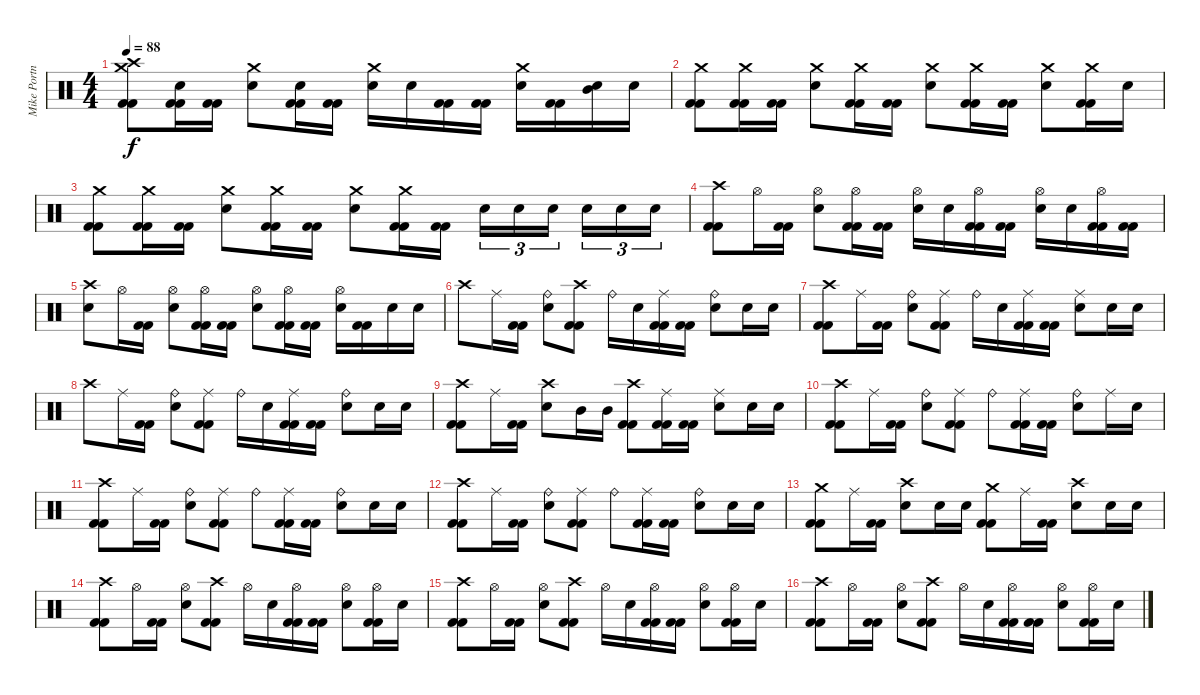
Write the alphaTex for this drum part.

\track ("Mike Portnoy" "Mike Portn") {instrument percussion}
\staff {score}
\articulation defaults
\ts (4 4)
\tempo 88
\clef neutral
\ks c
("Crash medium (hit)" "Crash high (hit)" "Kick (hit) 2" "Kick (hit) 2").8{dy f} ("Snare (hit) 2" "Kick (hit) 2" "Kick (hit) 2").16 ("Kick (hit) 2" "Kick (hit) 2").16 ("Crash medium (hit)" "Snare (hit) 2").8 ("Snare (hit) 2" "Kick (hit) 2" "Kick (hit) 2").16 ("Kick (hit) 2" "Kick (hit) 2").16 ("Crash medium (hit)" "Snare (hit) 2").16 "Snare (hit) 2".16 ("Kick (hit) 2" "Kick (hit) 2").16 ("Kick (hit) 2" "Kick (hit) 2").16 ("Crash medium (hit)" "Snare (hit) 2").16 ("Kick (hit) 2" "Kick (hit) 2").16 ("Snare (hit) 2" "Mid Tom (hit)").16 "Snare (hit) 2".16 |
("Crash medium (hit)" "Kick (hit) 2" "Kick (hit) 2").8 ("Crash medium (hit)" "Kick (hit) 2" "Kick (hit) 2").16 ("Kick (hit) 2" "Kick (hit) 2").16 ("Crash medium (hit)" "Snare (hit) 2").8 ("Crash medium (hit)" "Kick (hit) 2" "Kick (hit) 2").16 ("Kick (hit) 2" "Kick (hit) 2").16 ("Crash medium (hit)" "Snare (hit) 2").8 ("Crash medium (hit)" "Kick (hit) 2" "Kick (hit) 2").16 ("Kick (hit) 2" "Kick (hit) 2").16 ("Crash medium (hit)" "Snare (hit) 2").8 ("Crash medium (hit)" "Kick (hit) 2" "Kick (hit) 2").16 "Snare (hit) 2".16 |
("Crash medium (hit)" "Kick (hit) 2" "Kick (hit) 2").8 ("Crash medium (hit)" "Kick (hit) 2" "Kick (hit) 2").16 ("Kick (hit) 2" "Kick (hit) 2").16 ("Crash medium (hit)" "Snare (hit) 2").8 ("Crash medium (hit)" "Kick (hit) 2" "Kick (hit) 2").16 ("Kick (hit) 2" "Kick (hit) 2").16 ("Crash medium (hit)" "Snare (hit) 2").8 ("Crash medium (hit)" "Kick (hit) 2" "Kick (hit) 2").16 ("Kick (hit) 2" "Kick (hit) 2").16 "Snare (hit) 2".16{tu (3 2)} "Snare (hit) 2".16{tu (3 2)} "Snare (hit) 2".16{tu (3 2)} "Snare (hit) 2".16{tu (3 2)} "Snare (hit) 2".16{tu (3 2)} "Snare (hit) 2".16{tu (3 2)} |
("Crash high (hit)" "Kick (hit) 2" "Kick (hit) 2").8 "Hi-Hat (open)".16 ("Kick (hit) 2" "Kick (hit) 2").16 ("Hi-Hat (open)" "Snare (hit) 2").8 ("Hi-Hat (open)" "Kick (hit) 2" "Kick (hit) 2").16 ("Kick (hit) 2" "Kick (hit) 2").16 ("Hi-Hat (open)" "Snare (hit) 2").16 "Snare (hit) 2".16 ("Hi-Hat (open)" "Kick (hit) 2" "Kick (hit) 2").16 ("Kick (hit) 2" "Kick (hit) 2").16 ("Hi-Hat (open)" "Snare (hit) 2").16 "Snare (hit) 2".16 ("Hi-Hat (open)" "Kick (hit) 2" "Kick (hit) 2").16 ("Kick (hit) 2" "Kick (hit) 2").16 |
("Crash high (hit)" "Snare (hit) 2").8 "Hi-Hat (open)".16 ("Kick (hit) 2" "Kick (hit) 2").16 ("Hi-Hat (open)" "Snare (hit) 2").8 ("Hi-Hat (open)" "Kick (hit) 2" "Kick (hit) 2").16 ("Kick (hit) 2" "Kick (hit) 2").16 ("Hi-Hat (open)" "Snare (hit) 2").8 ("Hi-Hat (open)" "Kick (hit) 2" "Kick (hit) 2").16 ("Kick (hit) 2" "Kick (hit) 2").16 ("Hi-Hat (open)" "Snare (hit) 2").16 ("Kick (hit) 2" "Kick (hit) 2").16 "Snare (hit) 2".16 "Snare (hit) 2".16 |
"Crash high (hit)".8 "Ride (middle)".16 ("Kick (hit) 2" "Kick (hit) 2").16 ("Ride (bell)" "Snare (hit) 2").8 ("Crash high (hit)" "Kick (hit) 2" "Kick (hit) 2").8 "Ride (bell)".16 "Snare (hit) 2".16 ("Ride (middle)" "Kick (hit) 2" "Kick (hit) 2").16 ("Kick (hit) 2" "Kick (hit) 2").16 ("Ride (bell)" "Snare (hit) 2").8 "Snare (hit) 2".16 "Snare (hit) 2".16 |
("Crash high (hit)" "Kick (hit) 2" "Kick (hit) 2").8 "Ride (middle)".16 ("Kick (hit) 2" "Kick (hit) 2").16 ("Ride (bell)" "Snare (hit) 2").8 ("Ride (middle)" "Kick (hit) 2" "Kick (hit) 2").8 "Ride (bell)".16 "Snare (hit) 2".16 ("Ride (middle)" "Kick (hit) 2" "Kick (hit) 2").16 ("Kick (hit) 2" "Kick (hit) 2").16 ("Ride (middle)" "Snare (hit) 2").8 "Snare (hit) 2".16 "Snare (hit) 2".16 |
"Crash high (hit)".8 "Ride (middle)".16 ("Kick (hit) 2" "Kick (hit) 2").16 ("Ride (bell)" "Snare (hit) 2").8 ("Ride (middle)" "Kick (hit) 2" "Kick (hit) 2").8 "Ride (bell)".16 "Snare (hit) 2".16 ("Ride (middle)" "Kick (hit) 2" "Kick (hit) 2").16 ("Kick (hit) 2" "Kick (hit) 2").16 ("Ride (bell)" "Snare (hit) 2").8 "Snare (hit) 2".16 "Snare (hit) 2".16 |
("Crash high (hit)" "Kick (hit) 2" "Kick (hit) 2").8 "Ride (middle)".16 ("Kick (hit) 2" "Kick (hit) 2").16 ("Crash high (hit)" "Snare (hit) 2").8 "Mid Tom (hit)".16 "Mid Tom (hit)".16 ("Crash high (hit)" "Kick (hit) 2" "Kick (hit) 2").8 ("Ride (middle)" "Kick (hit) 2" "Kick (hit) 2").16 ("Kick (hit) 2" "Kick (hit) 2").16 ("Ride (middle)" "Snare (hit) 2").8 "Snare (hit) 2".16 "Snare (hit) 2".16 |
("Crash high (hit)" "Kick (hit) 2" "Kick (hit) 2").8 "Ride (middle)".16 ("Kick (hit) 2" "Kick (hit) 2").16 ("Ride (bell)" "Snare (hit) 2").8 ("Ride (middle)" "Kick (hit) 2" "Kick (hit) 2").8 "Ride (bell)".8 ("Ride (middle)" "Kick (hit) 2" "Kick (hit) 2").16 ("Kick (hit) 2" "Kick (hit) 2").16 ("Ride (bell)" "Snare (hit) 2").8 "Ride (middle)".16 "Snare (hit) 2".16 |
("Crash high (hit)" "Kick (hit) 2" "Kick (hit) 2").8 "Ride (middle)".16 ("Kick (hit) 2" "Kick (hit) 2").16 ("Ride (bell)" "Snare (hit) 2").8 ("Ride (middle)" "Kick (hit) 2" "Kick (hit) 2").8 "Ride (bell)".8 ("Ride (middle)" "Kick (hit) 2" "Kick (hit) 2").16 ("Kick (hit) 2" "Kick (hit) 2").16 ("Ride (bell)" "Snare (hit) 2").8 "Snare (hit) 2".16 "Snare (hit) 2".16 |
("Crash high (hit)" "Kick (hit) 2" "Kick (hit) 2").8 "Ride (middle)".16 ("Kick (hit) 2" "Kick (hit) 2").16 ("Ride (bell)" "Snare (hit) 2").8 ("Ride (middle)" "Kick (hit) 2" "Kick (hit) 2").8 "Ride (bell)".8 ("Ride (middle)" "Kick (hit) 2" "Kick (hit) 2").16 ("Kick (hit) 2" "Kick (hit) 2").16 ("Ride (bell)" "Snare (hit) 2").8 "Snare (hit) 2".16 "Snare (hit) 2".16 |
("Crash medium (hit)" "Kick (hit) 2" "Kick (hit) 2").8 "Ride (middle)".16 ("Kick (hit) 2" "Kick (hit) 2").16 ("Crash high (hit)" "Snare (hit) 2").8 "Snare (hit) 2".16 "Snare (hit) 2".16 ("Crash medium (hit)" "Kick (hit) 2" "Kick (hit) 2").8 "Ride (middle)".16 ("Kick (hit) 2" "Kick (hit) 2").16 ("Crash high (hit)" "Snare (hit) 2").8 "Snare (hit) 2".16 "Snare (hit) 2".16 |
("Crash high (hit)" "Kick (hit) 2" "Kick (hit) 2").8 "Hi-Hat (open)".16 ("Kick (hit) 2" "Kick (hit) 2").16 ("Hi-Hat (open)" "Snare (hit) 2").8 ("Crash high (hit)" "Kick (hit) 2" "Kick (hit) 2").8 "Hi-Hat (open)".16 "Snare (hit) 2".16 ("Hi-Hat (open)" "Kick (hit) 2" "Kick (hit) 2").16 ("Kick (hit) 2" "Kick (hit) 2").16 ("Hi-Hat (open)" "Snare (hit) 2").8 ("Hi-Hat (open)" "Kick (hit) 2" "Kick (hit) 2").16 "Snare (hit) 2".16 |
("Crash high (hit)" "Kick (hit) 2" "Kick (hit) 2").8 "Hi-Hat (open)".16 ("Kick (hit) 2" "Kick (hit) 2").16 ("Hi-Hat (open)" "Snare (hit) 2").8 ("Crash high (hit)" "Kick (hit) 2" "Kick (hit) 2").8 "Hi-Hat (open)".16 "Snare (hit) 2".16 ("Hi-Hat (open)" "Kick (hit) 2" "Kick (hit) 2").16 ("Kick (hit) 2" "Kick (hit) 2").16 ("Hi-Hat (open)" "Snare (hit) 2").8 ("Hi-Hat (open)" "Kick (hit) 2" "Kick (hit) 2").16 "Snare (hit) 2".16 |
("Crash high (hit)" "Kick (hit) 2" "Kick (hit) 2").8 "Hi-Hat (open)".16 ("Kick (hit) 2" "Kick (hit) 2").16 ("Hi-Hat (open)" "Snare (hit) 2").8 ("Crash high (hit)" "Kick (hit) 2" "Kick (hit) 2").8 "Hi-Hat (open)".16 "Snare (hit) 2".16 ("Hi-Hat (open)" "Kick (hit) 2" "Kick (hit) 2").16 ("Kick (hit) 2" "Kick (hit) 2").16 ("Hi-Hat (open)" "Snare (hit) 2").8 ("Hi-Hat (open)" "Kick (hit) 2" "Kick (hit) 2").16 "Snare (hit) 2".16
